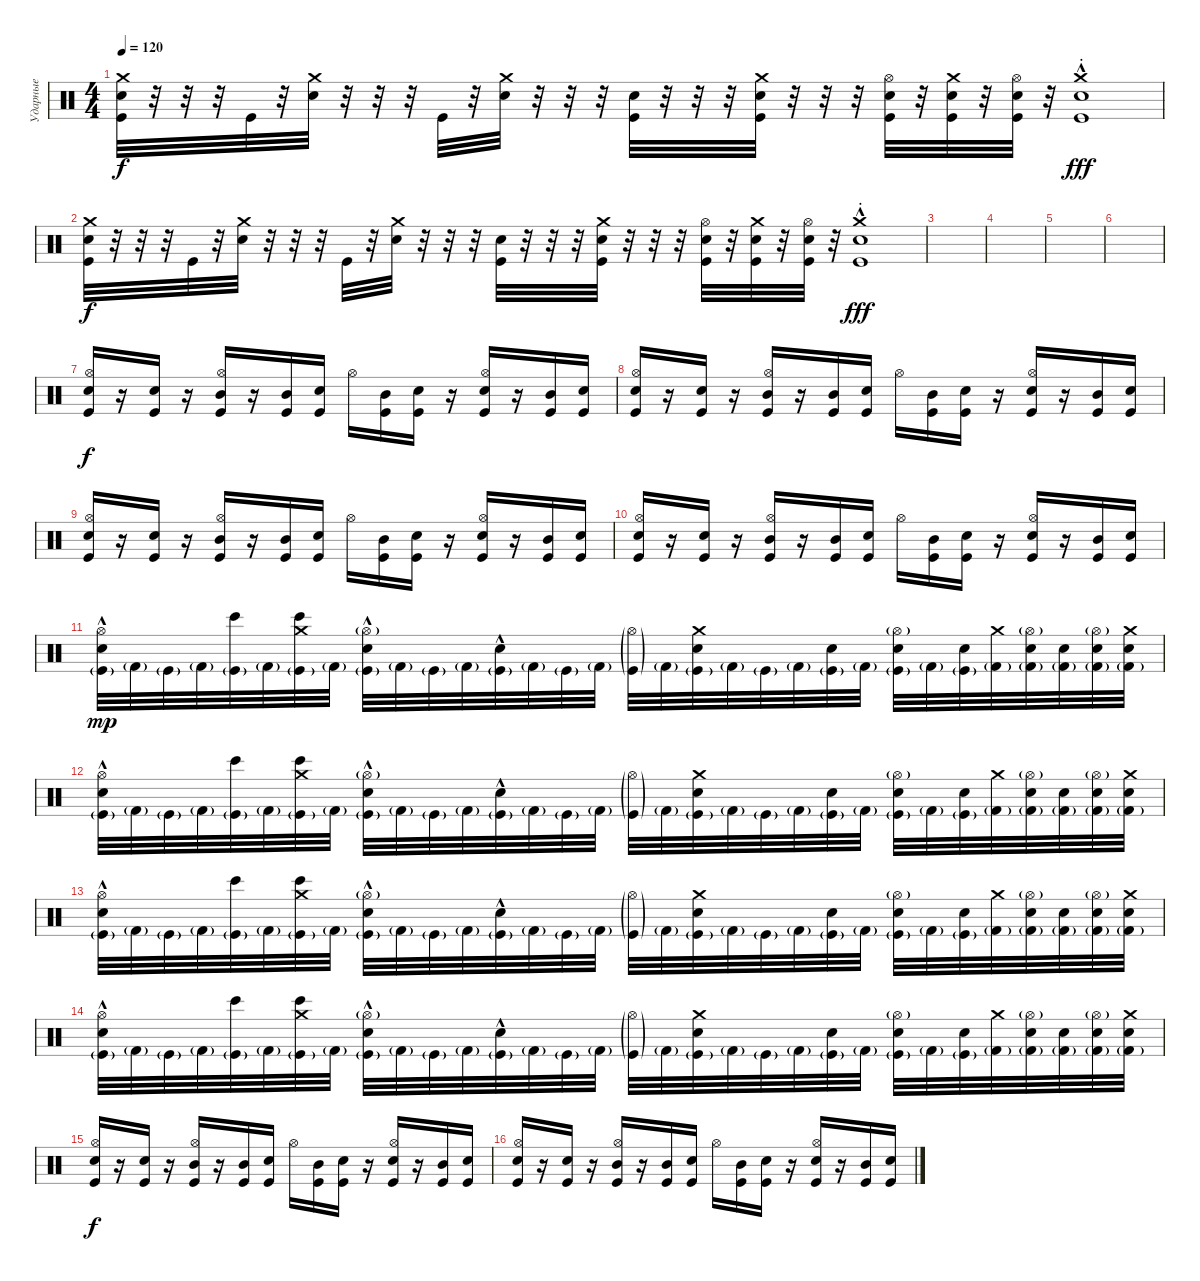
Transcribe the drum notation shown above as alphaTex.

\track ("Ударные" "Ударные") {instrument percussion}
\staff {score}
\articulation defaults
\ts (4 4)
\tempo 120
\clef neutral
\ks c
("Crash medium (hit)" "Electric Snare (hit)" "Kick (hit)").32{dy f} r.32 r.32 r.32 "Kick (hit)".32 r.32 ("Crash medium (hit)" "Electric Snare (hit)").32 r.32 r.32 r.32 "Kick (hit)".32 r.32 ("Crash medium (hit)" "Electric Snare (hit)").32 r.32 r.32 r.32 ("Electric Snare (hit)" "Kick (hit)").32 r.32 r.32 r.32 ("Crash medium (hit)" "Electric Snare (hit)" "Kick (hit)").32 r.32 r.32 r.32 ("Hi-Hat (open)" "Electric Snare (hit)" "Kick (hit)").32 r.32 ("Crash medium (hit)" "Electric Snare (hit)" "Kick (hit)").32 r.32 ("Hi-Hat (open)" "Electric Snare (hit)" "Kick (hit)").32 r.32 ("Crash medium (hit)" "Electric Snare (hit)"{hac} "Kick (hit)"{hac st}).1{dy fff} |
("Crash medium (hit)" "Electric Snare (hit)" "Kick (hit)").32{dy f} r.32 r.32 r.32 "Kick (hit)".32 r.32 ("Crash medium (hit)" "Electric Snare (hit)").32 r.32 r.32 r.32 "Kick (hit)".32 r.32 ("Crash medium (hit)" "Electric Snare (hit)").32 r.32 r.32 r.32 ("Electric Snare (hit)" "Kick (hit)").32 r.32 r.32 r.32 ("Crash medium (hit)" "Electric Snare (hit)" "Kick (hit)").32 r.32 r.32 r.32 ("Hi-Hat (open)" "Electric Snare (hit)" "Kick (hit)").32 r.32 ("Crash medium (hit)" "Electric Snare (hit)" "Kick (hit)").32 r.32 ("Hi-Hat (open)" "Electric Snare (hit)" "Kick (hit)").32 r.32 ("Crash medium (hit)" "Electric Snare (hit)"{hac} "Kick (hit)"{hac st}).1{dy fff} |
|
|
|
|
("Hi-Hat (open)" "Snare (hit) 2" "Kick (hit)").16{dy f} r.16 ("Snare (hit) 2" "Kick (hit)").16 r.16 ("Hi-Hat (open)" "Mid Tom (hit)" "Kick (hit)").16 r.16 ("Mid Tom (hit)" "Kick (hit)").16 ("Snare (hit) 2" "Kick (hit)").16 "Hi-Hat (open)".16 ("Mid Tom (hit)" "Kick (hit)").16 ("Snare (hit) 2" "Kick (hit)").16 r.16 ("Hi-Hat (open)" "Snare (hit) 2" "Kick (hit)").16 r.16 ("Mid Tom (hit)" "Kick (hit)").16 ("Snare (hit) 2" "Kick (hit)").16 |
("Hi-Hat (open)" "Snare (hit) 2" "Kick (hit)").16 r.16 ("Snare (hit) 2" "Kick (hit)").16 r.16 ("Hi-Hat (open)" "Mid Tom (hit)" "Kick (hit)").16 r.16 ("Mid Tom (hit)" "Kick (hit)").16 ("Snare (hit) 2" "Kick (hit)").16 "Hi-Hat (open)".16 ("Mid Tom (hit)" "Kick (hit)").16 ("Snare (hit) 2" "Kick (hit)").16 r.16 ("Hi-Hat (open)" "Snare (hit) 2" "Kick (hit)").16 r.16 ("Mid Tom (hit)" "Kick (hit)").16 ("Snare (hit) 2" "Kick (hit)").16 |
("Hi-Hat (open)" "Snare (hit) 2" "Kick (hit)").16 r.16 ("Snare (hit) 2" "Kick (hit)").16 r.16 ("Hi-Hat (open)" "Mid Tom (hit)" "Kick (hit)").16 r.16 ("Mid Tom (hit)" "Kick (hit)").16 ("Snare (hit) 2" "Kick (hit)").16 "Hi-Hat (open)".16 ("Mid Tom (hit)" "Kick (hit)").16 ("Snare (hit) 2" "Kick (hit)").16 r.16 ("Hi-Hat (open)" "Snare (hit) 2" "Kick (hit)").16 r.16 ("Mid Tom (hit)" "Kick (hit)").16 ("Snare (hit) 2" "Kick (hit)").16 |
("Hi-Hat (open)" "Snare (hit) 2" "Kick (hit)").16 r.16 ("Snare (hit) 2" "Kick (hit)").16 r.16 ("Hi-Hat (open)" "Mid Tom (hit)" "Kick (hit)").16 r.16 ("Mid Tom (hit)" "Kick (hit)").16 ("Snare (hit) 2" "Kick (hit)").16 "Hi-Hat (open)".16 ("Mid Tom (hit)" "Kick (hit)").16 ("Snare (hit) 2" "Kick (hit)").16 r.16 ("Hi-Hat (open)" "Snare (hit) 2" "Kick (hit)").16 r.16 ("Mid Tom (hit)" "Kick (hit)").16 ("Snare (hit) 2" "Kick (hit)").16 |
("Hi-Hat (open)" "Snare (hit) 2"{hac} "Kick (hit)"{g}).32{dy mp} "Kick (hit) 2"{g}.32 "Kick (hit)"{g}.32 "Kick (hit) 2"{g}.32 ("Bongo High (hit)" "Kick (hit)"{g}).32 "Kick (hit) 2"{g}.32 ("Crash medium (hit)" "Bongo High (hit)" "Kick (hit)"{g}).32 "Kick (hit) 2"{g}.32 ("Hi-Hat (open)"{g} "Electric Snare (hit)"{hac} "Kick (hit)"{g}).32 "Kick (hit) 2"{g}.32 "Kick (hit)"{g}.32 "Kick (hit) 2"{g}.32 ("Snare (hit) 2"{hac} "Kick (hit)"{g}).32 "Kick (hit) 2"{g}.32 "Kick (hit)"{g}.32 "Kick (hit) 2"{g}.32 ("Hi-Hat (open)"{g} "Kick (hit)"{g}).32 "Kick (hit) 2"{g}.32 ("Crash medium (hit)" "Snare (hit) 2" "Kick (hit)"{g}).32 "Kick (hit) 2"{g}.32 "Kick (hit)"{g}.32 "Kick (hit) 2"{g}.32 ("Snare (hit) 2" "Kick (hit)"{g}).32 "Kick (hit) 2"{g}.32 ("Hi-Hat (open)"{g} "Electric Snare (hit)" "Kick (hit)"{g}).32 "Kick (hit) 2"{g}.32 ("Electric Snare (hit)" "Kick (hit)"{g}).32 ("Crash medium (hit)" "Kick (hit) 2"{g}).32 ("Hi-Hat (open)"{g} "Electric Snare (hit)" "Kick (hit) 2"{g}).32 ("Electric Snare (hit)" "Kick (hit) 2"{g}).32 ("Hi-Hat (open)"{g} "Electric Snare (hit)" "Kick (hit) 2"{g}).32 ("Crash medium (hit)" "Electric Snare (hit)" "Kick (hit) 2"{g}).32 |
("Hi-Hat (open)" "Snare (hit) 2"{hac} "Kick (hit)"{g}).32 "Kick (hit) 2"{g}.32 "Kick (hit)"{g}.32 "Kick (hit) 2"{g}.32 ("Bongo High (hit)" "Kick (hit)"{g}).32 "Kick (hit) 2"{g}.32 ("Crash medium (hit)" "Bongo High (hit)" "Kick (hit)"{g}).32 "Kick (hit) 2"{g}.32 ("Hi-Hat (open)"{g} "Electric Snare (hit)"{hac} "Kick (hit)"{g}).32 "Kick (hit) 2"{g}.32 "Kick (hit)"{g}.32 "Kick (hit) 2"{g}.32 ("Snare (hit) 2"{hac} "Kick (hit)"{g}).32 "Kick (hit) 2"{g}.32 "Kick (hit)"{g}.32 "Kick (hit) 2"{g}.32 ("Hi-Hat (open)"{g} "Kick (hit)"{g}).32 "Kick (hit) 2"{g}.32 ("Crash medium (hit)" "Snare (hit) 2" "Kick (hit)"{g}).32 "Kick (hit) 2"{g}.32 "Kick (hit)"{g}.32 "Kick (hit) 2"{g}.32 ("Snare (hit) 2" "Kick (hit)"{g}).32 "Kick (hit) 2"{g}.32 ("Hi-Hat (open)"{g} "Electric Snare (hit)" "Kick (hit)"{g}).32 "Kick (hit) 2"{g}.32 ("Electric Snare (hit)" "Kick (hit)"{g}).32 ("Crash medium (hit)" "Kick (hit) 2"{g}).32 ("Hi-Hat (open)"{g} "Electric Snare (hit)" "Kick (hit) 2"{g}).32 ("Electric Snare (hit)" "Kick (hit) 2"{g}).32 ("Hi-Hat (open)"{g} "Electric Snare (hit)" "Kick (hit) 2"{g}).32 ("Crash medium (hit)" "Electric Snare (hit)" "Kick (hit) 2"{g}).32 |
("Hi-Hat (open)" "Snare (hit) 2"{hac} "Kick (hit)"{g}).32 "Kick (hit) 2"{g}.32 "Kick (hit)"{g}.32 "Kick (hit) 2"{g}.32 ("Bongo High (hit)" "Kick (hit)"{g}).32 "Kick (hit) 2"{g}.32 ("Crash medium (hit)" "Bongo High (hit)" "Kick (hit)"{g}).32 "Kick (hit) 2"{g}.32 ("Hi-Hat (open)"{g} "Electric Snare (hit)"{hac} "Kick (hit)"{g}).32 "Kick (hit) 2"{g}.32 "Kick (hit)"{g}.32 "Kick (hit) 2"{g}.32 ("Snare (hit) 2"{hac} "Kick (hit)"{g}).32 "Kick (hit) 2"{g}.32 "Kick (hit)"{g}.32 "Kick (hit) 2"{g}.32 ("Hi-Hat (open)"{g} "Kick (hit)"{g}).32 "Kick (hit) 2"{g}.32 ("Crash medium (hit)" "Snare (hit) 2" "Kick (hit)"{g}).32 "Kick (hit) 2"{g}.32 "Kick (hit)"{g}.32 "Kick (hit) 2"{g}.32 ("Snare (hit) 2" "Kick (hit)"{g}).32 "Kick (hit) 2"{g}.32 ("Hi-Hat (open)"{g} "Electric Snare (hit)" "Kick (hit)"{g}).32 "Kick (hit) 2"{g}.32 ("Electric Snare (hit)" "Kick (hit)"{g}).32 ("Crash medium (hit)" "Kick (hit) 2"{g}).32 ("Hi-Hat (open)"{g} "Electric Snare (hit)" "Kick (hit) 2"{g}).32 ("Electric Snare (hit)" "Kick (hit) 2"{g}).32 ("Hi-Hat (open)"{g} "Electric Snare (hit)" "Kick (hit) 2"{g}).32 ("Crash medium (hit)" "Electric Snare (hit)" "Kick (hit) 2"{g}).32 |
("Hi-Hat (open)" "Snare (hit) 2"{hac} "Kick (hit)"{g}).32 "Kick (hit) 2"{g}.32 "Kick (hit)"{g}.32 "Kick (hit) 2"{g}.32 ("Bongo High (hit)" "Kick (hit)"{g}).32 "Kick (hit) 2"{g}.32 ("Crash medium (hit)" "Bongo High (hit)" "Kick (hit)"{g}).32 "Kick (hit) 2"{g}.32 ("Hi-Hat (open)"{g} "Electric Snare (hit)"{hac} "Kick (hit)"{g}).32 "Kick (hit) 2"{g}.32 "Kick (hit)"{g}.32 "Kick (hit) 2"{g}.32 ("Snare (hit) 2"{hac} "Kick (hit)"{g}).32 "Kick (hit) 2"{g}.32 "Kick (hit)"{g}.32 "Kick (hit) 2"{g}.32 ("Hi-Hat (open)"{g} "Kick (hit)"{g}).32 "Kick (hit) 2"{g}.32 ("Crash medium (hit)" "Snare (hit) 2" "Kick (hit)"{g}).32 "Kick (hit) 2"{g}.32 "Kick (hit)"{g}.32 "Kick (hit) 2"{g}.32 ("Snare (hit) 2" "Kick (hit)"{g}).32 "Kick (hit) 2"{g}.32 ("Hi-Hat (open)"{g} "Electric Snare (hit)" "Kick (hit)"{g}).32 "Kick (hit) 2"{g}.32 ("Electric Snare (hit)" "Kick (hit)"{g}).32 ("Crash medium (hit)" "Kick (hit) 2"{g}).32 ("Hi-Hat (open)"{g} "Electric Snare (hit)" "Kick (hit) 2"{g}).32 ("Electric Snare (hit)" "Kick (hit) 2"{g}).32 ("Hi-Hat (open)"{g} "Electric Snare (hit)" "Kick (hit) 2"{g}).32 ("Crash medium (hit)" "Electric Snare (hit)" "Kick (hit) 2"{g}).32 |
("Hi-Hat (open)" "Snare (hit) 2" "Kick (hit)").16{dy f} r.16 ("Snare (hit) 2" "Kick (hit)").16 r.16 ("Hi-Hat (open)" "Mid Tom (hit)" "Kick (hit)").16 r.16 ("Mid Tom (hit)" "Kick (hit)").16 ("Snare (hit) 2" "Kick (hit)").16 "Hi-Hat (open)".16 ("Mid Tom (hit)" "Kick (hit)").16 ("Snare (hit) 2" "Kick (hit)").16 r.16 ("Hi-Hat (open)" "Snare (hit) 2" "Kick (hit)").16 r.16 ("Mid Tom (hit)" "Kick (hit)").16 ("Snare (hit) 2" "Kick (hit)").16 |
("Hi-Hat (open)" "Snare (hit) 2" "Kick (hit)").16 r.16 ("Snare (hit) 2" "Kick (hit)").16 r.16 ("Hi-Hat (open)" "Mid Tom (hit)" "Kick (hit)").16 r.16 ("Mid Tom (hit)" "Kick (hit)").16 ("Snare (hit) 2" "Kick (hit)").16 "Hi-Hat (open)".16 ("Mid Tom (hit)" "Kick (hit)").16 ("Snare (hit) 2" "Kick (hit)").16 r.16 ("Hi-Hat (open)" "Snare (hit) 2" "Kick (hit)").16 r.16 ("Mid Tom (hit)" "Kick (hit)").16 ("Snare (hit) 2" "Kick (hit)").16
